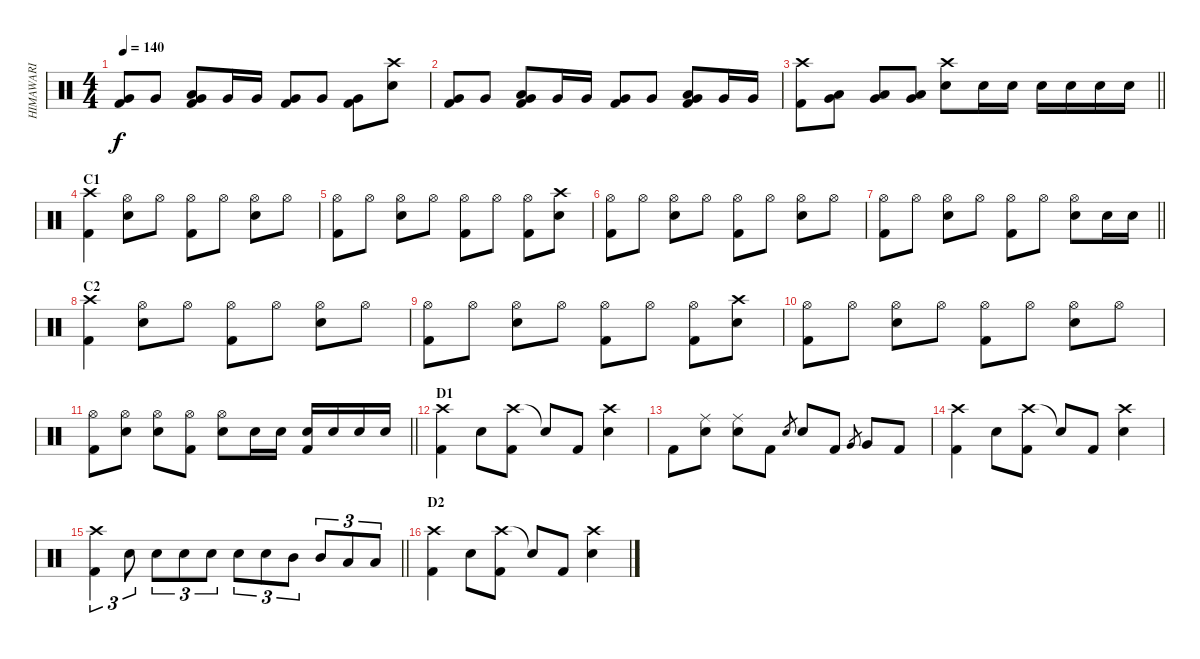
\track ("HIMAWARI" "HIMAWARI") {instrument percussion}
\staff {score}
\articulation defaults
\ts (4 4)
\tempo 140
\clef neutral
\ks c
("Very Low Tom (hit)" "Kick (hit) 2").8{dy f} "Very Low Tom (hit)".8 ("Low Tom (hit)" "Very Low Tom (hit)" "Kick (hit) 2").8 "Very Low Tom (hit)".16 "Very Low Tom (hit)".16 ("Very Low Tom (hit)" "Kick (hit) 2").8 "Very Low Tom (hit)".8 ("Very Low Tom (hit)" "Kick (hit) 2").8 ("Crash high (hit)" "Snare (hit) 2").8 |
("Very Low Tom (hit)" "Kick (hit) 2").8 "Very Low Tom (hit)".8 ("Low Tom (hit)" "Very Low Tom (hit)" "Kick (hit) 2").8 "Very Low Tom (hit)".16 "Very Low Tom (hit)".16 ("Very Low Tom (hit)" "Kick (hit) 2").8 "Very Low Tom (hit)".8 ("Low Tom (hit)" "Very Low Tom (hit)" "Kick (hit) 2").8 "Very Low Tom (hit)".16 "Very Low Tom (hit)".16 |
\barLineRight lightlight
("Crash high (hit)" "Kick (hit) 2").8 ("Very Low Tom (hit)" "Low Tom (hit)").8 ("Very Low Tom (hit)" "Low Tom (hit)").8 ("Very Low Tom (hit)" "Low Tom (hit)").8 ("Crash high (hit)" "Snare (hit) 2").8 "Snare (hit) 2".16 "Snare (hit) 2".16 "Snare (hit) 2".16 "Snare (hit) 2".16 "Snare (hit) 2".16 "Snare (hit) 2".16 |
\section ("" "C1")
("Crash high (hit)" "Kick (hit) 2").4 ("Hi-Hat (open)" "Snare (hit) 2").8 "Hi-Hat (open)".8 ("Hi-Hat (open)" "Kick (hit) 2").8 "Hi-Hat (open)".8 ("Hi-Hat (open)" "Snare (hit) 2").8 "Hi-Hat (open)".8 |
("Hi-Hat (open)" "Kick (hit) 2").8 "Hi-Hat (open)".8 ("Hi-Hat (open)" "Snare (hit) 2").8 "Hi-Hat (open)".8 ("Hi-Hat (open)" "Kick (hit) 2").8 "Hi-Hat (open)".8 ("Hi-Hat (open)" "Kick (hit) 2").8 ("Crash high (hit)" "Snare (hit) 2").8 |
("Hi-Hat (open)" "Kick (hit) 2").8 "Hi-Hat (open)".8 ("Hi-Hat (open)" "Snare (hit) 2").8 "Hi-Hat (open)".8 ("Hi-Hat (open)" "Kick (hit) 2").8 "Hi-Hat (open)".8 ("Hi-Hat (open)" "Snare (hit) 2").8 "Hi-Hat (open)".8 |
\barLineRight lightlight
("Hi-Hat (open)" "Kick (hit) 2").8 "Hi-Hat (open)".8 ("Hi-Hat (open)" "Snare (hit) 2").8 "Hi-Hat (open)".8 ("Hi-Hat (open)" "Kick (hit) 2").8 "Hi-Hat (open)".8 ("Hi-Hat (open)" "Snare (hit) 2").8 "Snare (hit) 2".16 "Snare (hit) 2".16 |
\section ("" "C2")
("Crash high (hit)" "Kick (hit) 2").4 ("Hi-Hat (open)" "Snare (hit) 2").8 "Hi-Hat (open)".8 ("Hi-Hat (open)" "Kick (hit) 2").8 "Hi-Hat (open)".8 ("Hi-Hat (open)" "Snare (hit) 2").8 "Hi-Hat (open)".8 |
("Hi-Hat (open)" "Kick (hit) 2").8 "Hi-Hat (open)".8 ("Hi-Hat (open)" "Snare (hit) 2").8 "Hi-Hat (open)".8 ("Hi-Hat (open)" "Kick (hit) 2").8 "Hi-Hat (open)".8 ("Hi-Hat (open)" "Kick (hit) 2").8 ("Crash high (hit)" "Snare (hit) 2").8 |
("Hi-Hat (open)" "Kick (hit) 2").8 "Hi-Hat (open)".8 ("Hi-Hat (open)" "Snare (hit) 2").8 "Hi-Hat (open)".8 ("Hi-Hat (open)" "Kick (hit) 2").8 "Hi-Hat (open)".8 ("Hi-Hat (open)" "Snare (hit) 2").8 "Hi-Hat (open)".8 |
\barLineRight lightlight
("Hi-Hat (open)" "Kick (hit) 2").8 ("Hi-Hat (open)" "Snare (hit) 2").8 ("Hi-Hat (open)" "Snare (hit) 2").8 ("Hi-Hat (open)" "Kick (hit) 2").8 ("Hi-Hat (open)" "Snare (hit) 2").8 "Snare (hit) 2".16 "Snare (hit) 2".16 ("Snare (hit) 2" "Kick (hit) 2").16 "Snare (hit) 2".16 "Snare (hit) 2".16 "Snare (hit) 2".16 |
\section ("" "D1")
("Crash high (hit)" "Kick (hit) 2").4 "Snare (hit) 2".8 ("Crash high (hit)" "Kick (hit) 2").8 "Snare (hit)"{t}.8 "Kick (hit) 2".8 ("Crash high (hit)" "Snare (hit) 2").4 |
"Kick (hit) 2".8 ("Ride (middle)" "Snare (hit) 2").8 ("Ride (middle)" "Snare (hit) 2").8 "Kick (hit) 2".8 "Snare (hit) 2".8{gr} "Snare (hit) 2".8 "Kick (hit) 2".8 "Very Low Tom (hit)".8{gr} "Very Low Tom (hit)".8 "Kick (hit) 2".8 |
("Crash high (hit)" "Kick (hit) 2").4 "Snare (hit) 2".8 ("Crash high (hit)" "Kick (hit) 2").8 "Snare (hit)"{t}.8 "Kick (hit) 2".8 ("Crash high (hit)" "Snare (hit) 2").4 |
\barLineRight lightlight
("Crash high (hit)" "Kick (hit) 2").4{tu (3 2)} "Snare (hit) 2".8{tu (3 2)} "Snare (hit) 2".8{tu (3 2)} "Snare (hit) 2".8{tu (3 2)} "Snare (hit) 2".8{tu (3 2)} "Snare (hit) 2".8{tu (3 2)} "Snare (hit) 2".8{tu (3 2)} "Mid Tom (hit)".8{tu (3 2)} "Mid Tom (hit)".8{tu (3 2)} "Low Tom (hit)".8{tu (3 2)} "Low Tom (hit)".8{tu (3 2)} |
\section ("" "D2")
("Crash high (hit)" "Kick (hit) 2").4 "Snare (hit) 2".8 ("Crash high (hit)" "Kick (hit) 2").8 "Snare (hit)"{t}.8 "Kick (hit) 2".8 ("Crash high (hit)" "Snare (hit) 2").4
